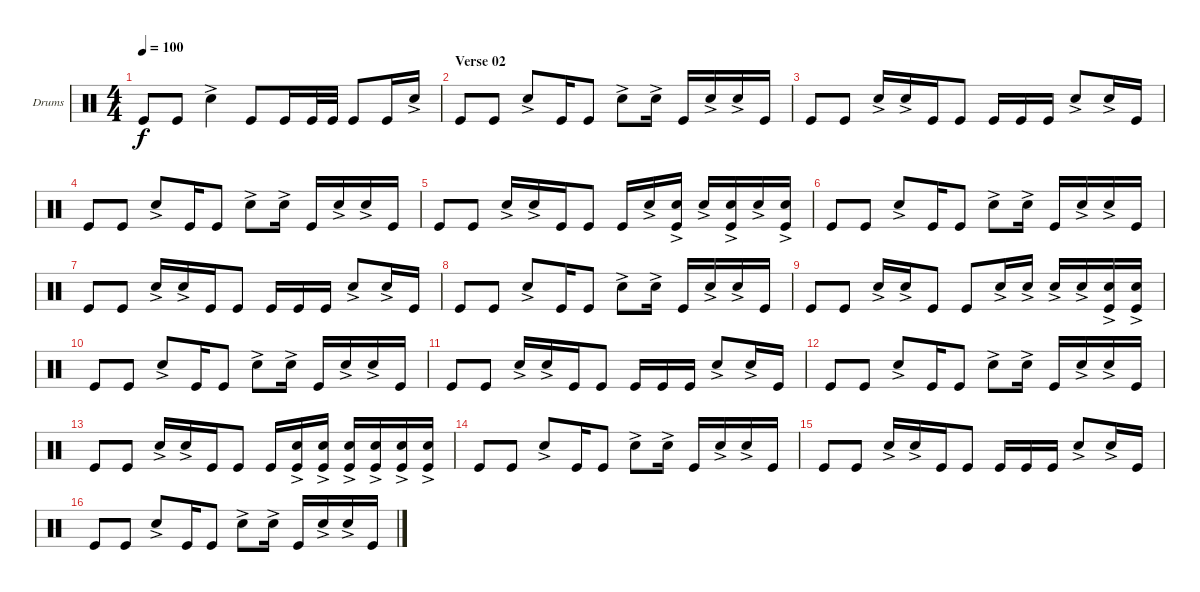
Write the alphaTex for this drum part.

\bracketExtendMode groupsimilarinstruments
\firstSystemTrackNameOrientation horizontal
\otherSystemsTrackNameOrientation horizontal
\track ("Drums rhythm" "Drums") {instrument percussion}
\staff {score}
\articulation defaults
\ts (4 4)
\tempo 100
\clef neutral
\ks c "Kick (hit)".8{dy f} "Kick (hit)".8 "Snare (hit) 2"{ac}.4 "Kick (hit)".8 "Kick (hit)".16 "Kick (hit)".32 "Kick (hit)".32 "Kick (hit)".8 "Kick (hit)".16 "Snare (hit) 2"{ac}.16
|
\section ("" "Verse 02")
"Kick (hit)".8 "Kick (hit)".8 "Snare (hit) 2"{ac}.8 "Kick (hit)".16 "Kick (hit)".8 "Snare (hit) 2"{ac}.8 "Snare (hit) 2"{ac}.16 "Kick (hit)".16 "Snare (hit) 2"{ac}.16 "Snare (hit) 2"{ac}.16 "Kick (hit)".16 |
"Kick (hit)".8 "Kick (hit)".8 "Snare (hit) 2"{ac}.16 "Snare (hit) 2"{ac}.16 "Kick (hit)".16 "Kick (hit)".8 "Kick (hit)".16 "Kick (hit)".16 "Kick (hit)".16 "Snare (hit) 2"{ac}.8 "Snare (hit) 2"{ac}.16 "Kick (hit)".16 |
"Kick (hit)".8 "Kick (hit)".8 "Snare (hit) 2"{ac}.8 "Kick (hit)".16 "Kick (hit)".8 "Snare (hit) 2"{ac}.8 "Snare (hit) 2"{ac}.16 "Kick (hit)".16 "Snare (hit) 2"{ac}.16 "Snare (hit) 2"{ac}.16 "Kick (hit)".16 |
"Kick (hit)".8 "Kick (hit)".8 "Snare (hit) 2"{ac}.16 "Snare (hit) 2"{ac}.16 "Kick (hit)".16 "Kick (hit)".8 "Kick (hit)".16 "Snare (hit) 2"{ac}.16 ("Snare (hit) 2"{ac} "Kick (hit)").16 "Snare (hit) 2"{ac}.16 ("Snare (hit) 2"{ac} "Kick (hit)").16 "Snare (hit) 2"{ac}.16 ("Snare (hit) 2"{ac} "Kick (hit)").16 |
"Kick (hit)".8 "Kick (hit)".8 "Snare (hit) 2"{ac}.8 "Kick (hit)".16 "Kick (hit)".8 "Snare (hit) 2"{ac}.8 "Snare (hit) 2"{ac}.16 "Kick (hit)".16 "Snare (hit) 2"{ac}.16 "Snare (hit) 2"{ac}.16 "Kick (hit)".16 |
"Kick (hit)".8 "Kick (hit)".8 "Snare (hit) 2"{ac}.16 "Snare (hit) 2"{ac}.16 "Kick (hit)".16 "Kick (hit)".8 "Kick (hit)".16 "Kick (hit)".16 "Kick (hit)".16 "Snare (hit) 2"{ac}.8 "Snare (hit) 2"{ac}.16 "Kick (hit)".16 |
"Kick (hit)".8 "Kick (hit)".8 "Snare (hit) 2"{ac}.8 "Kick (hit)".16 "Kick (hit)".8 "Snare (hit) 2"{ac}.8 "Snare (hit) 2"{ac}.16 "Kick (hit)".16 "Snare (hit) 2"{ac}.16 "Snare (hit) 2"{ac}.16 "Kick (hit)".16 |
"Kick (hit)".8 "Kick (hit)".8 "Snare (hit) 2"{ac}.16 "Snare (hit) 2"{ac}.16 "Kick (hit)".8 "Kick (hit)".8 "Snare (hit) 2"{ac}.16 "Snare (hit) 2"{ac}.16 "Snare (hit) 2"{ac}.16 "Snare (hit) 2"{ac}.16 ("Snare (hit) 2"{ac} "Kick (hit)").16 ("Snare (hit) 2"{ac} "Kick (hit)").16 |
"Kick (hit)".8 "Kick (hit)".8 "Snare (hit) 2"{ac}.8 "Kick (hit)".16 "Kick (hit)".8 "Snare (hit) 2"{ac}.8 "Snare (hit) 2"{ac}.16 "Kick (hit)".16 "Snare (hit) 2"{ac}.16 "Snare (hit) 2"{ac}.16 "Kick (hit)".16 |
"Kick (hit)".8 "Kick (hit)".8 "Snare (hit) 2"{ac}.16 "Snare (hit) 2"{ac}.16 "Kick (hit)".16 "Kick (hit)".8 "Kick (hit)".16 "Kick (hit)".16 "Kick (hit)".16 "Snare (hit) 2"{ac}.8 "Snare (hit) 2"{ac}.16 "Kick (hit)".16 |
"Kick (hit)".8 "Kick (hit)".8 "Snare (hit) 2"{ac}.8 "Kick (hit)".16 "Kick (hit)".8 "Snare (hit) 2"{ac}.8 "Snare (hit) 2"{ac}.16 "Kick (hit)".16 "Snare (hit) 2"{ac}.16 "Snare (hit) 2"{ac}.16 "Kick (hit)".16 |
"Kick (hit)".8 "Kick (hit)".8 "Snare (hit) 2"{ac}.16 "Snare (hit) 2"{ac}.16 "Kick (hit)".16 "Kick (hit)".8 "Kick (hit)".16 ("Kick (hit)" "Snare (hit) 2"{ac}).16 ("Snare (hit) 2"{ac} "Kick (hit)").16 ("Snare (hit) 2"{ac} "Kick (hit)").16 ("Snare (hit) 2"{ac} "Kick (hit)").16 ("Snare (hit) 2"{ac} "Kick (hit)").16 ("Snare (hit) 2"{ac} "Kick (hit)").16 |
"Kick (hit)".8 "Kick (hit)".8 "Snare (hit) 2"{ac}.8 "Kick (hit)".16 "Kick (hit)".8 "Snare (hit) 2"{ac}.8 "Snare (hit) 2"{ac}.16 "Kick (hit)".16 "Snare (hit) 2"{ac}.16 "Snare (hit) 2"{ac}.16 "Kick (hit)".16 |
"Kick (hit)".8 "Kick (hit)".8 "Snare (hit) 2"{ac}.16 "Snare (hit) 2"{ac}.16 "Kick (hit)".16 "Kick (hit)".8 "Kick (hit)".16 "Kick (hit)".16 "Kick (hit)".16 "Snare (hit) 2"{ac}.8 "Snare (hit) 2"{ac}.16 "Kick (hit)".16 |
"Kick (hit)".8 "Kick (hit)".8 "Snare (hit) 2"{ac}.8 "Kick (hit)".16 "Kick (hit)".8 "Snare (hit) 2"{ac}.8 "Snare (hit) 2"{ac}.16 "Kick (hit)".16 "Snare (hit) 2"{ac}.16 "Snare (hit) 2"{ac}.16 "Kick (hit)".16
